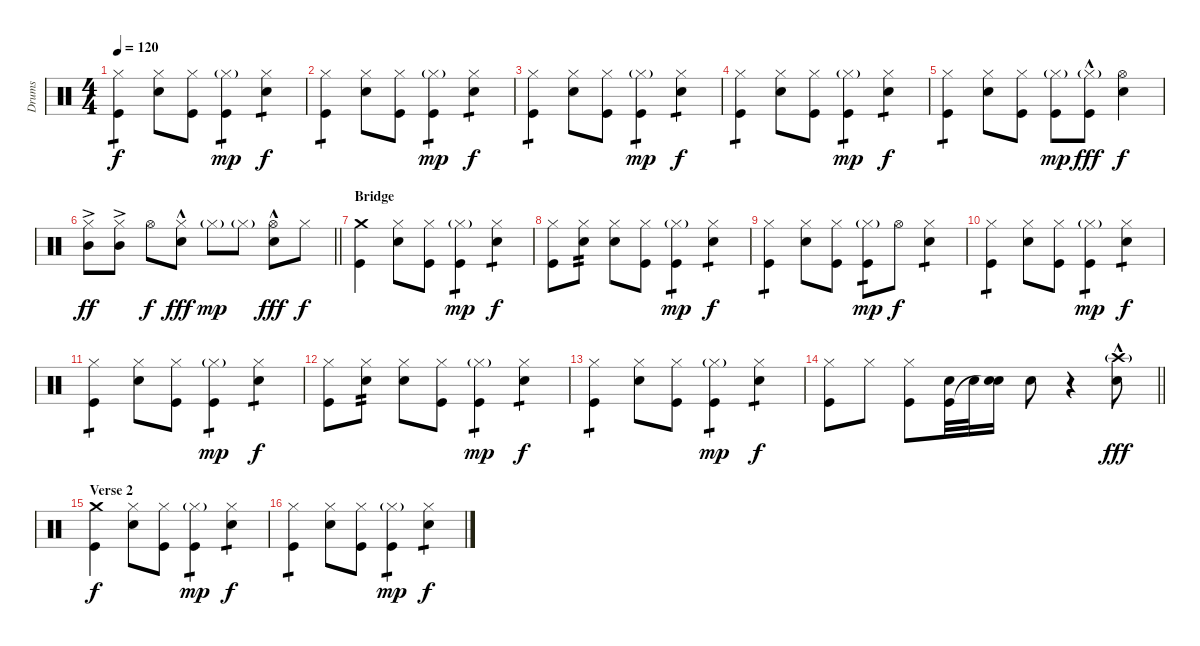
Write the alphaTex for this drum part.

\track ("Drums" "Drums") {instrument percussion}
\staff {score}
\articulation defaults
\ts (4 4)
\tempo 120
\clef neutral
\ks c
("Hi-Hat (closed)" "Kick (hit)").4{tp 1 dy f} ("Hi-Hat (closed)" "Snare (hit) 2").8 ("Hi-Hat (closed)" "Kick (hit)").8 ("Hi-Hat (closed)"{g} "Kick (hit)").4{tp 1 dy mp} ("Hi-Hat (closed)" "Snare (hit) 2").4{tp 1 dy f} |
("Hi-Hat (closed)" "Kick (hit)").4{tp 1} ("Hi-Hat (closed)" "Snare (hit) 2").8 ("Hi-Hat (closed)" "Kick (hit)").8 ("Hi-Hat (closed)"{g} "Kick (hit)").4{tp 1 dy mp} ("Hi-Hat (closed)" "Snare (hit) 2").4{tp 1 dy f} |
("Hi-Hat (closed)" "Kick (hit)").4{tp 1} ("Hi-Hat (closed)" "Snare (hit) 2").8 ("Hi-Hat (closed)" "Kick (hit)").8 ("Hi-Hat (closed)"{g} "Kick (hit)").4{tp 1 dy mp} ("Hi-Hat (closed)" "Snare (hit) 2").4{tp 1 dy f} |
("Hi-Hat (closed)" "Kick (hit)").4{tp 1} ("Hi-Hat (closed)" "Snare (hit) 2").8 ("Hi-Hat (closed)" "Kick (hit)").8 ("Hi-Hat (closed)"{g} "Kick (hit)").4{tp 1 dy mp} ("Hi-Hat (closed)" "Snare (hit) 2").4{tp 1 dy f} |
("Hi-Hat (closed)" "Kick (hit)").4{tp 1} ("Hi-Hat (closed)" "Snare (hit) 2").8 ("Hi-Hat (closed)" "Kick (hit)").8 ("Hi-Hat (closed)"{g} "Kick (hit)").8{dy mp} ("Hi-Hat (closed)"{g} "Kick (hit)"{hac}).8{dy fff} ("Hi-Hat (open)" "Snare (hit) 2").4{dy f} |
\barLineRight lightlight
("Hi-Hat (closed)" "Mid Tom (hit)"{ac}).8{dy ff} ("Hi-Hat (closed)" "Mid Tom (hit)"{ac}).8 "Hi-Hat (open)".8{dy f} ("Hi-Hat (closed)" "Snare (hit) 2"{hac}).8{dy fff} "Hi-Hat (closed)"{g}.8{dy mp} "Hi-Hat (closed)"{g}.8 ("Hi-Hat (open)" "Snare (hit) 2"{hac}).8{dy fff} "Hi-Hat (closed)".8{dy f} |
\section ("" "Bridge")
("Crash medium (hit)" "Kick (hit)").4 ("Hi-Hat (closed)" "Snare (hit) 2").8 ("Hi-Hat (closed)" "Kick (hit)").8 ("Hi-Hat (closed)"{g} "Kick (hit)").4{tp 1 dy mp} ("Hi-Hat (closed)" "Snare (hit) 2").4{tp 1 dy f} |
("Hi-Hat (closed)" "Kick (hit)").8 ("Hi-Hat (closed)" "Snare (hit) 2").8{tp 2} ("Hi-Hat (closed)" "Snare (hit) 2").8 ("Hi-Hat (closed)" "Kick (hit)").8 ("Hi-Hat (closed)"{g} "Kick (hit)").4{tp 1 dy mp} ("Hi-Hat (closed)" "Snare (hit) 2").4{tp 1 dy f} |
("Hi-Hat (closed)" "Kick (hit)").4{tp 1} ("Hi-Hat (closed)" "Snare (hit) 2").8 ("Hi-Hat (closed)" "Kick (hit)").8 ("Hi-Hat (closed)"{g} "Kick (hit)").8{tp 1 dy mp} "Hi-Hat (open)".8{dy f} ("Hi-Hat (closed)" "Snare (hit) 2").4{tp 1} |
("Hi-Hat (closed)" "Kick (hit)").4{tp 1} ("Hi-Hat (closed)" "Snare (hit) 2").8 ("Hi-Hat (closed)" "Kick (hit)").8 ("Hi-Hat (closed)"{g} "Kick (hit)").4{tp 1 dy mp} ("Hi-Hat (closed)" "Snare (hit) 2").4{tp 1 dy f} |
("Hi-Hat (closed)" "Kick (hit)").4{tp 1} ("Hi-Hat (closed)" "Snare (hit) 2").8 ("Hi-Hat (closed)" "Kick (hit)").8 ("Hi-Hat (closed)"{g} "Kick (hit)").4{tp 1 dy mp} ("Hi-Hat (closed)" "Snare (hit) 2").4{tp 1 dy f} |
("Hi-Hat (closed)" "Kick (hit)").8 ("Hi-Hat (closed)" "Snare (hit) 2").8{tp 2} ("Hi-Hat (closed)" "Snare (hit) 2").8 ("Hi-Hat (closed)" "Kick (hit)").8 ("Hi-Hat (closed)"{g} "Kick (hit)").4{tp 1 dy mp} ("Hi-Hat (closed)" "Snare (hit) 2").4{tp 1 dy f} |
("Hi-Hat (closed)" "Kick (hit)").4{tp 1} ("Hi-Hat (closed)" "Snare (hit) 2").8 ("Hi-Hat (closed)" "Kick (hit)").8 ("Hi-Hat (closed)"{g} "Kick (hit)").4{tp 1 dy mp} ("Hi-Hat (closed)" "Snare (hit) 2").4{tp 1 dy f} |
\barLineRight lightlight
("Hi-Hat (closed)" "Kick (hit)").8 "Hi-Hat (closed)".8 ("Hi-Hat (closed)" "Kick (hit)").8 ("Snare (hit) 2" "Kick (hit)").32 "Snare (hit) 2".32 ("Snare (hit) 2" "Snare (hit)"{t}).16 "Snare (hit) 2".8 r.4 ("Crash high (hit)"{g} "Snare (hit) 2"{hac}).8{dy fff} |
\section ("" "Verse 2")
("Crash medium (hit)" "Kick (hit)").4{dy f} ("Hi-Hat (closed)" "Snare (hit) 2").8 ("Hi-Hat (closed)" "Kick (hit)").8 ("Hi-Hat (closed)"{g} "Kick (hit)").4{tp 1 dy mp} ("Hi-Hat (closed)" "Snare (hit) 2").4{tp 1 dy f} |
("Hi-Hat (closed)" "Kick (hit)").4{tp 1} ("Hi-Hat (closed)" "Snare (hit) 2").8 ("Hi-Hat (closed)" "Kick (hit)").8 ("Hi-Hat (closed)"{g} "Kick (hit)").4{tp 1 dy mp} ("Hi-Hat (closed)" "Snare (hit) 2").4{tp 1 dy f}
